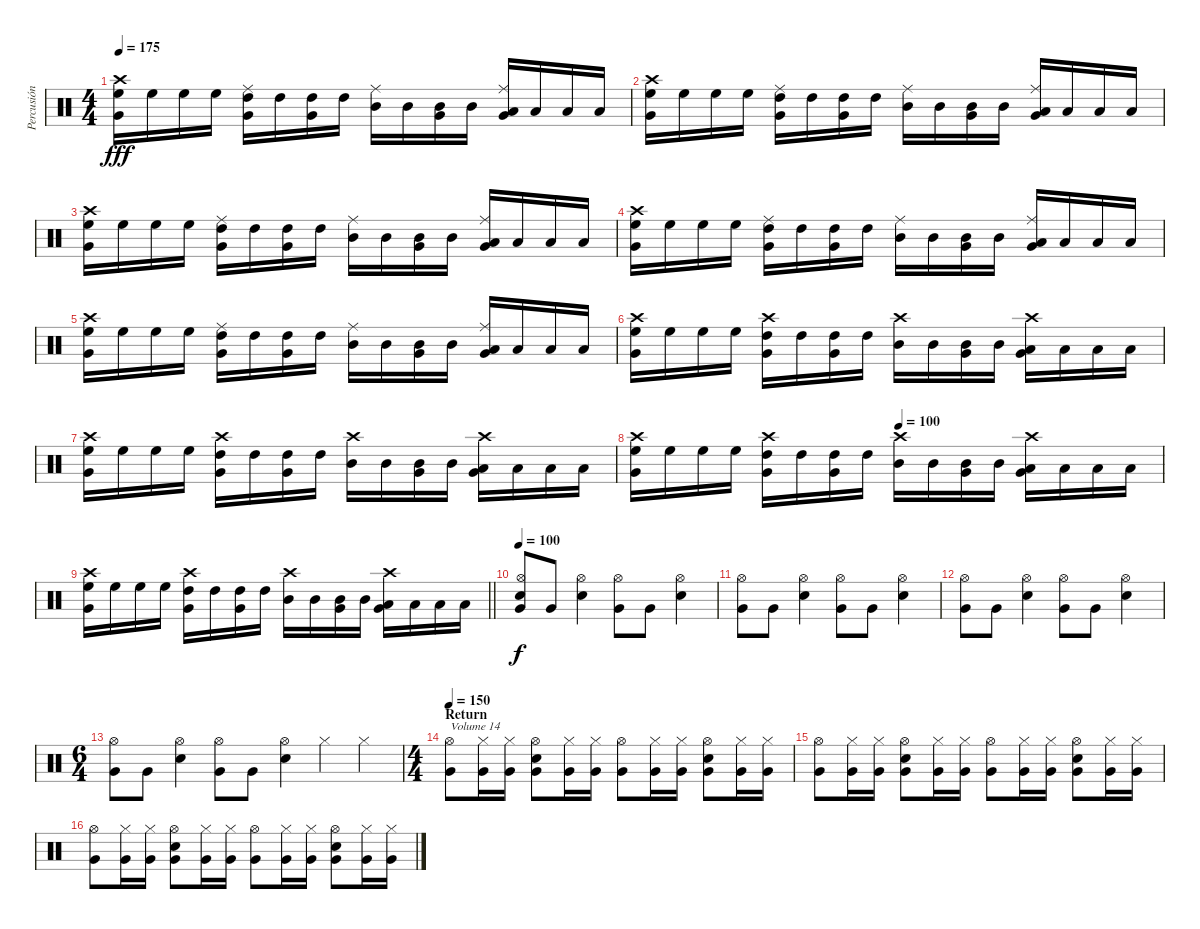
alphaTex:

\track ("Percusión" "Percusión") {instrument percussion}
\staff {score}
\articulation defaults
\ts (4 4)
\tempo 175
\clef neutral
\ks c
("Crash high (hit)" "High Floor Tom (hit)" "Very Low Tom (hit)").16{dy fff} "High Floor Tom (hit)".16 "High Floor Tom (hit)".16 "High Floor Tom (hit)".16 ("Ride (middle)" "High Tom (hit)" "Very Low Tom (hit)").16 "High Tom (hit)".16 ("High Tom (hit)" "Very Low Tom (hit)").16 "High Tom (hit)".16 ("Ride (middle)" "Mid Tom (hit)").16 "Mid Tom (hit)".16 ("Mid Tom (hit)" "Very Low Tom (hit)").16 "Mid Tom (hit)".16 ("Ride (middle)" "Low Tom (hit)" "Very Low Tom (hit)").16 "Low Tom (hit)".16 "Low Tom (hit)".16 "Low Tom (hit)".16 |
("Crash high (hit)" "High Floor Tom (hit)" "Very Low Tom (hit)").16 "High Floor Tom (hit)".16 "High Floor Tom (hit)".16 "High Floor Tom (hit)".16 ("Ride (middle)" "High Tom (hit)" "Very Low Tom (hit)").16 "High Tom (hit)".16 ("High Tom (hit)" "Very Low Tom (hit)").16 "High Tom (hit)".16 ("Ride (middle)" "Mid Tom (hit)").16 "Mid Tom (hit)".16 ("Mid Tom (hit)" "Very Low Tom (hit)").16 "Mid Tom (hit)".16 ("Ride (middle)" "Low Tom (hit)" "Very Low Tom (hit)").16 "Low Tom (hit)".16 "Low Tom (hit)".16 "Low Tom (hit)".16 |
("Crash high (hit)" "High Floor Tom (hit)" "Very Low Tom (hit)").16 "High Floor Tom (hit)".16 "High Floor Tom (hit)".16 "High Floor Tom (hit)".16 ("Ride (middle)" "High Tom (hit)" "Very Low Tom (hit)").16 "High Tom (hit)".16 ("High Tom (hit)" "Very Low Tom (hit)").16 "High Tom (hit)".16 ("Ride (middle)" "Mid Tom (hit)").16 "Mid Tom (hit)".16 ("Mid Tom (hit)" "Very Low Tom (hit)").16 "Mid Tom (hit)".16 ("Ride (middle)" "Low Tom (hit)" "Very Low Tom (hit)").16 "Low Tom (hit)".16 "Low Tom (hit)".16 "Low Tom (hit)".16 |
("Crash high (hit)" "High Floor Tom (hit)" "Very Low Tom (hit)").16 "High Floor Tom (hit)".16 "High Floor Tom (hit)".16 "High Floor Tom (hit)".16 ("Ride (middle)" "High Tom (hit)" "Very Low Tom (hit)").16 "High Tom (hit)".16 ("High Tom (hit)" "Very Low Tom (hit)").16 "High Tom (hit)".16 ("Ride (middle)" "Mid Tom (hit)").16 "Mid Tom (hit)".16 ("Mid Tom (hit)" "Very Low Tom (hit)").16 "Mid Tom (hit)".16 ("Ride (middle)" "Low Tom (hit)" "Very Low Tom (hit)").16 "Low Tom (hit)".16 "Low Tom (hit)".16 "Low Tom (hit)".16 |
("Crash high (hit)" "High Floor Tom (hit)" "Very Low Tom (hit)").16 "High Floor Tom (hit)".16 "High Floor Tom (hit)".16 "High Floor Tom (hit)".16 ("Ride (middle)" "High Tom (hit)" "Very Low Tom (hit)").16 "High Tom (hit)".16 ("High Tom (hit)" "Very Low Tom (hit)").16 "High Tom (hit)".16 ("Ride (middle)" "Mid Tom (hit)").16 "Mid Tom (hit)".16 ("Mid Tom (hit)" "Very Low Tom (hit)").16 "Mid Tom (hit)".16 ("Ride (middle)" "Low Tom (hit)" "Very Low Tom (hit)").16 "Low Tom (hit)".16 "Low Tom (hit)".16 "Low Tom (hit)".16 |
("Crash high (hit)" "High Floor Tom (hit)" "Very Low Tom (hit)").16 "High Floor Tom (hit)".16 "High Floor Tom (hit)".16 "High Floor Tom (hit)".16 ("Crash high (hit)" "High Tom (hit)" "Very Low Tom (hit)").16 "High Tom (hit)".16 ("High Tom (hit)" "Very Low Tom (hit)").16 "High Tom (hit)".16 ("Crash high (hit)" "Mid Tom (hit)").16 "Mid Tom (hit)".16 ("Mid Tom (hit)" "Very Low Tom (hit)").16 "Mid Tom (hit)".16 ("Crash high (hit)" "Low Tom (hit)" "Very Low Tom (hit)").16 "Low Tom (hit)".16 "Low Tom (hit)".16 "Low Tom (hit)".16 |
("Crash high (hit)" "High Floor Tom (hit)" "Very Low Tom (hit)").16 "High Floor Tom (hit)".16 "High Floor Tom (hit)".16 "High Floor Tom (hit)".16 ("Crash high (hit)" "High Tom (hit)" "Very Low Tom (hit)").16 "High Tom (hit)".16 ("High Tom (hit)" "Very Low Tom (hit)").16 "High Tom (hit)".16 ("Crash high (hit)" "Mid Tom (hit)").16 "Mid Tom (hit)".16 ("Mid Tom (hit)" "Very Low Tom (hit)").16 "Mid Tom (hit)".16 ("Crash high (hit)" "Low Tom (hit)" "Very Low Tom (hit)").16 "Low Tom (hit)".16 "Low Tom (hit)".16 "Low Tom (hit)".16 |
\tempo (100 0.5)
("Crash high (hit)" "High Floor Tom (hit)" "Very Low Tom (hit)").16 "High Floor Tom (hit)".16 "High Floor Tom (hit)".16 "High Floor Tom (hit)".16 ("Crash high (hit)" "High Tom (hit)" "Very Low Tom (hit)").16 "High Tom (hit)".16 ("High Tom (hit)" "Very Low Tom (hit)").16 "High Tom (hit)".16 ("Crash high (hit)" "Mid Tom (hit)").16 "Mid Tom (hit)".16 ("Mid Tom (hit)" "Very Low Tom (hit)").16 "Mid Tom (hit)".16 ("Crash high (hit)" "Low Tom (hit)" "Very Low Tom (hit)").16 "Low Tom (hit)".16 "Low Tom (hit)".16 "Low Tom (hit)".16 |
\barLineRight lightlight
("Crash high (hit)" "High Floor Tom (hit)" "Very Low Tom (hit)").16 "High Floor Tom (hit)".16 "High Floor Tom (hit)".16 "High Floor Tom (hit)".16 ("Crash high (hit)" "High Tom (hit)" "Very Low Tom (hit)").16 "High Tom (hit)".16 ("High Tom (hit)" "Very Low Tom (hit)").16 "High Tom (hit)".16 ("Crash high (hit)" "Mid Tom (hit)").16 "Mid Tom (hit)".16 ("Mid Tom (hit)" "Very Low Tom (hit)").16 "Mid Tom (hit)".16 ("Crash high (hit)" "Low Tom (hit)" "Very Low Tom (hit)").16 "Low Tom (hit)".16 "Low Tom (hit)".16 "Low Tom (hit)".16 |
\tempo 100
("Hi-Hat (open)" "Electric Snare (hit)" "Very Low Tom (hit)").8{dy f} "Very Low Tom (hit)".8 ("Hi-Hat (open)" "Electric Snare (hit)").4 ("Hi-Hat (open)" "Very Low Tom (hit)").8 "Very Low Tom (hit)".8 ("Hi-Hat (open)" "Electric Snare (hit)").4 |
("Hi-Hat (open)" "Very Low Tom (hit)").8 "Very Low Tom (hit)".8 ("Hi-Hat (open)" "Electric Snare (hit)").4 ("Hi-Hat (open)" "Very Low Tom (hit)").8 "Very Low Tom (hit)".8 ("Hi-Hat (open)" "Electric Snare (hit)").4 |
("Hi-Hat (open)" "Very Low Tom (hit)").8 "Very Low Tom (hit)".8 ("Hi-Hat (open)" "Electric Snare (hit)").4 ("Hi-Hat (open)" "Very Low Tom (hit)").8 "Very Low Tom (hit)".8 ("Hi-Hat (open)" "Electric Snare (hit)").4 |
\ts (6 4)
("Hi-Hat (open)" "Very Low Tom (hit)").8 "Very Low Tom (hit)".8 ("Hi-Hat (open)" "Electric Snare (hit)").4 ("Hi-Hat (open)" "Very Low Tom (hit)").8 "Very Low Tom (hit)".8 ("Hi-Hat (open)" "Electric Snare (hit)").4 "Hi-Hat (closed)".4 "Hi-Hat (closed)".4 |
\ts (4 4)
\section ("" "Return")
\tempo 150
("Hi-Hat (open)" "Very Low Tom (hit)").8{txt "Volume 14" volume 12} ("Hi-Hat (closed)" "Very Low Tom (hit)").16 ("Hi-Hat (closed)" "Very Low Tom (hit)").16 ("Hi-Hat (open)" "Electric Snare (hit)" "Very Low Tom (hit)").8 ("Hi-Hat (closed)" "Very Low Tom (hit)").16 ("Hi-Hat (closed)" "Very Low Tom (hit)").16 ("Hi-Hat (open)" "Very Low Tom (hit)").8 ("Hi-Hat (closed)" "Very Low Tom (hit)").16 ("Hi-Hat (closed)" "Very Low Tom (hit)").16 ("Hi-Hat (open)" "Electric Snare (hit)" "Very Low Tom (hit)").8 ("Hi-Hat (closed)" "Very Low Tom (hit)").16 ("Hi-Hat (closed)" "Very Low Tom (hit)").16 |
("Hi-Hat (open)" "Very Low Tom (hit)").8 ("Hi-Hat (closed)" "Very Low Tom (hit)").16 ("Hi-Hat (closed)" "Very Low Tom (hit)").16 ("Hi-Hat (open)" "Electric Snare (hit)" "Very Low Tom (hit)").8 ("Hi-Hat (closed)" "Very Low Tom (hit)").16 ("Hi-Hat (closed)" "Very Low Tom (hit)").16 ("Hi-Hat (open)" "Very Low Tom (hit)").8 ("Hi-Hat (closed)" "Very Low Tom (hit)").16 ("Hi-Hat (closed)" "Very Low Tom (hit)").16 ("Hi-Hat (open)" "Electric Snare (hit)" "Very Low Tom (hit)").8 ("Hi-Hat (closed)" "Very Low Tom (hit)").16 ("Hi-Hat (closed)" "Very Low Tom (hit)").16 |
("Hi-Hat (open)" "Very Low Tom (hit)").8 ("Hi-Hat (closed)" "Very Low Tom (hit)").16 ("Hi-Hat (closed)" "Very Low Tom (hit)").16 ("Hi-Hat (open)" "Electric Snare (hit)" "Very Low Tom (hit)").8 ("Hi-Hat (closed)" "Very Low Tom (hit)").16 ("Hi-Hat (closed)" "Very Low Tom (hit)").16 ("Hi-Hat (open)" "Very Low Tom (hit)").8 ("Hi-Hat (closed)" "Very Low Tom (hit)").16 ("Hi-Hat (closed)" "Very Low Tom (hit)").16 ("Hi-Hat (open)" "Electric Snare (hit)" "Very Low Tom (hit)").8 ("Hi-Hat (closed)" "Very Low Tom (hit)").16 ("Hi-Hat (closed)" "Very Low Tom (hit)").16
